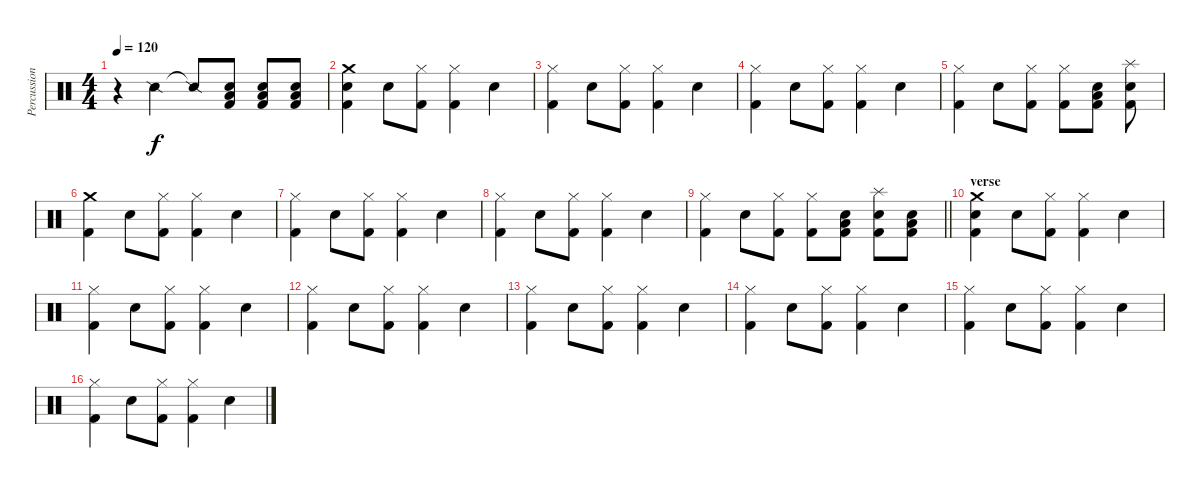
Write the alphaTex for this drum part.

\track ("Percussion" "Percussion") {instrument percussion}
\staff {score}
\articulation defaults
\ts (4 4)
\tempo 120
\clef neutral
\ks c
r.4{dy f} "Snare (side stick) 2".4 "Snare (side stick) 2"{t}.8 ("Kick (hit) 2" "Electric Snare (hit)" "Low Floor Tom (hit)").8 ("Kick (hit) 2" "Electric Snare (hit)" "Low Floor Tom (hit)").8 ("Kick (hit) 2" "Electric Snare (hit)" "Low Floor Tom (hit)").8 |
("Kick (hit) 2" "Electric Snare (hit)" "Crash medium (hit)").4 "Electric Snare (hit)".8 ("Kick (hit) 2" "Hi-Hat (closed)").8 ("Kick (hit) 2" "Hi-Hat (closed)").4 "Electric Snare (hit)".4 |
("Kick (hit) 2" "Hi-Hat (closed)").4 "Electric Snare (hit)".8 ("Kick (hit) 2" "Hi-Hat (closed)").8 ("Kick (hit) 2" "Hi-Hat (closed)").4 "Electric Snare (hit)".4 |
("Kick (hit) 2" "Hi-Hat (closed)").4 "Electric Snare (hit)".8 ("Kick (hit) 2" "Hi-Hat (closed)").8 ("Kick (hit) 2" "Hi-Hat (closed)").4 "Electric Snare (hit)".4 |
("Kick (hit) 2" "Hi-Hat (closed)").4 "Electric Snare (hit)".8 ("Kick (hit) 2" "Hi-Hat (closed)").8 ("Kick (hit) 2" "Hi-Hat (closed)").8 ("Kick (hit) 2" "Electric Snare (hit)" "Low Floor Tom (hit)").8 ("Kick (hit) 2" "Electric Snare (hit)" "Splash (hit)").8 |
("Kick (hit) 2" "Crash medium (hit)").4 "Electric Snare (hit)".8 ("Kick (hit) 2" "Hi-Hat (closed)").8 ("Kick (hit) 2" "Hi-Hat (closed)").4 "Electric Snare (hit)".4 |
("Kick (hit) 2" "Hi-Hat (closed)").4 "Electric Snare (hit)".8 ("Kick (hit) 2" "Hi-Hat (closed)").8 ("Kick (hit) 2" "Hi-Hat (closed)").4 "Electric Snare (hit)".4 |
("Kick (hit) 2" "Hi-Hat (closed)").4 "Electric Snare (hit)".8 ("Kick (hit) 2" "Hi-Hat (closed)").8 ("Kick (hit) 2" "Hi-Hat (closed)").4 "Electric Snare (hit)".4 |
\barLineRight lightlight
("Kick (hit) 2" "Hi-Hat (closed)").4 "Electric Snare (hit)".8 ("Kick (hit) 2" "Hi-Hat (closed)").8 ("Kick (hit) 2" "Hi-Hat (closed)").8 ("Kick (hit) 2" "Electric Snare (hit)" "Low Floor Tom (hit)").8 ("Kick (hit) 2" "Electric Snare (hit)" "Splash (hit)").8 ("Kick (hit) 2" "Electric Snare (hit)" "Low Floor Tom (hit)").8 |
\section ("" "verse")
("Kick (hit) 2" "Electric Snare (hit)" "Crash medium (hit)").4 "Electric Snare (hit)".8 ("Kick (hit) 2" "Hi-Hat (closed)").8 ("Kick (hit) 2" "Hi-Hat (closed)").4 "Electric Snare (hit)".4 |
("Kick (hit) 2" "Hi-Hat (closed)").4 "Electric Snare (hit)".8 ("Kick (hit) 2" "Hi-Hat (closed)").8 ("Kick (hit) 2" "Hi-Hat (closed)").4 "Electric Snare (hit)".4 |
("Kick (hit) 2" "Hi-Hat (closed)").4 "Electric Snare (hit)".8 ("Kick (hit) 2" "Hi-Hat (closed)").8 ("Kick (hit) 2" "Hi-Hat (closed)").4 "Electric Snare (hit)".4 |
("Kick (hit) 2" "Hi-Hat (closed)").4 "Electric Snare (hit)".8 ("Kick (hit) 2" "Hi-Hat (closed)").8 ("Kick (hit) 2" "Hi-Hat (closed)").4 "Electric Snare (hit)".4 |
("Kick (hit) 2" "Hi-Hat (closed)").4 "Electric Snare (hit)".8 ("Kick (hit) 2" "Hi-Hat (closed)").8 ("Kick (hit) 2" "Hi-Hat (closed)").4 "Electric Snare (hit)".4 |
("Kick (hit) 2" "Hi-Hat (closed)").4 "Electric Snare (hit)".8 ("Kick (hit) 2" "Hi-Hat (closed)").8 ("Kick (hit) 2" "Hi-Hat (closed)").4 "Electric Snare (hit)".4 |
("Kick (hit) 2" "Hi-Hat (closed)").4 "Electric Snare (hit)".8 ("Kick (hit) 2" "Hi-Hat (closed)").8 ("Kick (hit) 2" "Hi-Hat (closed)").4 "Electric Snare (hit)".4
